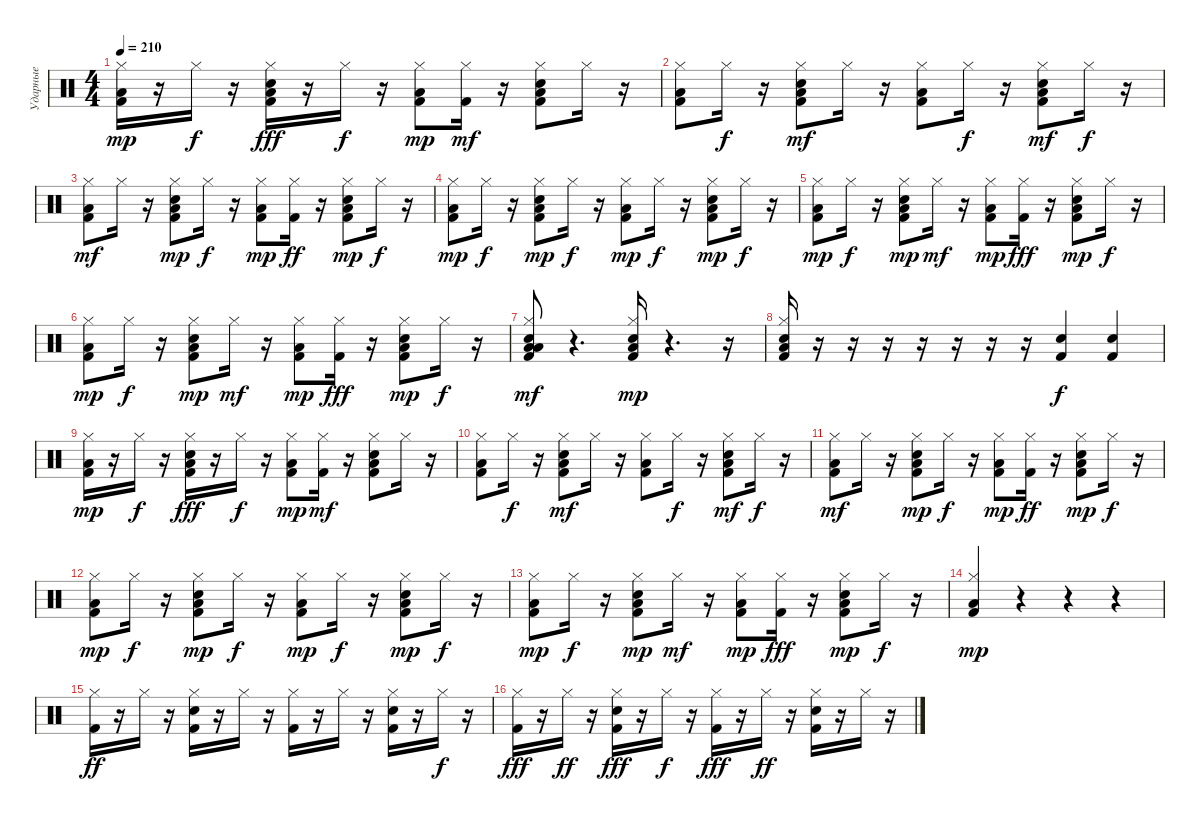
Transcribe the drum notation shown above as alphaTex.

\track ("Ударные" "Ударные") {instrument percussion}
\staff {score}
\articulation defaults
\ts (4 4)
\tempo 210
\clef neutral
\ks c
("Kick (hit) 2" "Hi-Hat (closed)" "Low Floor Tom (hit)").16{dy mp} r.16 "Hi-Hat (closed)".16{dy f} r.16 ("Kick (hit) 2" "Snare (hit) 2" "Hi-Hat (closed)" "Low Floor Tom (hit)").16{dy fff} r.16 "Hi-Hat (closed)".16{dy f} r.16 ("Kick (hit) 2" "Hi-Hat (closed)" "Low Floor Tom (hit)").8{dy mp} ("Kick (hit) 2" "Hi-Hat (closed)").16{dy mf} r.16 ("Kick (hit) 2" "Snare (hit) 2" "Hi-Hat (closed)" "Low Floor Tom (hit)").8 "Hi-Hat (closed)".16 r.16 |
("Kick (hit) 2" "Hi-Hat (closed)" "Low Floor Tom (hit)").8 "Hi-Hat (closed)".16{dy f} r.16 ("Kick (hit) 2" "Snare (hit) 2" "Hi-Hat (closed)" "Low Floor Tom (hit)").8{dy mf} "Hi-Hat (closed)".16 r.16 ("Kick (hit) 2" "Hi-Hat (closed)" "Low Floor Tom (hit)").8 "Hi-Hat (closed)".16{dy f} r.16 ("Kick (hit) 2" "Snare (hit) 2" "Hi-Hat (closed)" "Low Floor Tom (hit)").8{dy mf} "Hi-Hat (closed)".16{dy f} r.16 |
("Kick (hit) 2" "Hi-Hat (closed)" "Low Floor Tom (hit)").8{dy mf} "Hi-Hat (closed)".16 r.16 ("Kick (hit) 2" "Snare (hit) 2" "Hi-Hat (closed)" "Low Floor Tom (hit)").8{dy mp} "Hi-Hat (closed)".16{dy f} r.16 ("Kick (hit) 2" "Hi-Hat (closed)" "Low Floor Tom (hit)").8{dy mp} ("Kick (hit) 2" "Hi-Hat (closed)").16{dy ff} r.16 ("Kick (hit) 2" "Snare (hit) 2" "Hi-Hat (closed)" "Low Floor Tom (hit)").8{dy mp} "Hi-Hat (closed)".16{dy f} r.16 |
("Kick (hit) 2" "Hi-Hat (closed)" "Low Floor Tom (hit)").8{dy mp} "Hi-Hat (closed)".16{dy f} r.16 ("Kick (hit) 2" "Snare (hit) 2" "Hi-Hat (closed)" "Low Floor Tom (hit)").8{dy mp} "Hi-Hat (closed)".16{dy f} r.16 ("Kick (hit) 2" "Hi-Hat (closed)" "Low Floor Tom (hit)").8{dy mp} "Hi-Hat (closed)".16{dy f} r.16 ("Kick (hit) 2" "Snare (hit) 2" "Hi-Hat (closed)" "Low Floor Tom (hit)").8{dy mp} "Hi-Hat (closed)".16{dy f} r.16 |
("Kick (hit) 2" "Hi-Hat (closed)" "Low Floor Tom (hit)").8{dy mp} "Hi-Hat (closed)".16{dy f} r.16 ("Kick (hit) 2" "Snare (hit) 2" "Hi-Hat (closed)" "Low Floor Tom (hit)").8{dy mp} "Hi-Hat (closed)".16{dy mf} r.16 ("Kick (hit) 2" "Hi-Hat (closed)" "Low Floor Tom (hit)").8{dy mp} ("Kick (hit) 2" "Hi-Hat (closed)").16{dy fff} r.16 ("Kick (hit) 2" "Snare (hit) 2" "Hi-Hat (closed)" "Low Floor Tom (hit)").8{dy mp} "Hi-Hat (closed)".16{dy f} r.16 |
("Kick (hit) 2" "Hi-Hat (closed)" "Low Floor Tom (hit)").8{dy mp} "Hi-Hat (closed)".16{dy f} r.16 ("Kick (hit) 2" "Snare (hit) 2" "Hi-Hat (closed)" "Low Floor Tom (hit)").8{dy mp} "Hi-Hat (closed)".16{dy mf} r.16 ("Kick (hit) 2" "Hi-Hat (closed)" "Low Floor Tom (hit)").8{dy mp} ("Kick (hit) 2" "Hi-Hat (closed)").16{dy fff} r.16 ("Kick (hit) 2" "Snare (hit) 2" "Hi-Hat (closed)" "Low Floor Tom (hit)").8{dy mp} "Hi-Hat (closed)".16{dy f} r.16 |
("Kick (hit) 2" "Snare (hit) 2" "Hi-Hat (closed)" "Low Floor Tom (hit)" "Low Tom (hit)").8{dy mf} r.4{d} ("Kick (hit) 2" "Snare (hit) 2" "Hi-Hat (closed)" "Low Floor Tom (hit)").16{dy mp} r.4{d} r.16 |
("Kick (hit) 2" "Snare (hit) 2" "Hi-Hat (closed)" "Low Floor Tom (hit)").16 r.16 r.16 r.16 r.16 r.16 r.16 r.16 ("Snare (hit) 2" "Kick (hit) 2").4{dy f} ("Snare (hit) 2" "Kick (hit) 2").4 |
("Kick (hit) 2" "Hi-Hat (closed)" "Low Floor Tom (hit)").16{dy mp} r.16 "Hi-Hat (closed)".16{dy f} r.16 ("Kick (hit) 2" "Snare (hit) 2" "Hi-Hat (closed)" "Low Floor Tom (hit)").16{dy fff} r.16 "Hi-Hat (closed)".16{dy f} r.16 ("Kick (hit) 2" "Hi-Hat (closed)" "Low Floor Tom (hit)").8{dy mp} ("Kick (hit) 2" "Hi-Hat (closed)").16{dy mf} r.16 ("Kick (hit) 2" "Snare (hit) 2" "Hi-Hat (closed)" "Low Floor Tom (hit)").8 "Hi-Hat (closed)".16 r.16 |
("Kick (hit) 2" "Hi-Hat (closed)" "Low Floor Tom (hit)").8 "Hi-Hat (closed)".16{dy f} r.16 ("Kick (hit) 2" "Snare (hit) 2" "Hi-Hat (closed)" "Low Floor Tom (hit)").8{dy mf} "Hi-Hat (closed)".16 r.16 ("Kick (hit) 2" "Hi-Hat (closed)" "Low Floor Tom (hit)").8 "Hi-Hat (closed)".16{dy f} r.16 ("Kick (hit) 2" "Snare (hit) 2" "Hi-Hat (closed)" "Low Floor Tom (hit)").8{dy mf} "Hi-Hat (closed)".16{dy f} r.16 |
("Kick (hit) 2" "Hi-Hat (closed)" "Low Floor Tom (hit)").8{dy mf} "Hi-Hat (closed)".16 r.16 ("Kick (hit) 2" "Snare (hit) 2" "Hi-Hat (closed)" "Low Floor Tom (hit)").8{dy mp} "Hi-Hat (closed)".16{dy f} r.16 ("Kick (hit) 2" "Hi-Hat (closed)" "Low Floor Tom (hit)").8{dy mp} ("Kick (hit) 2" "Hi-Hat (closed)").16{dy ff} r.16 ("Kick (hit) 2" "Snare (hit) 2" "Hi-Hat (closed)" "Low Floor Tom (hit)").8{dy mp} "Hi-Hat (closed)".16{dy f} r.16 |
("Kick (hit) 2" "Hi-Hat (closed)" "Low Floor Tom (hit)").8{dy mp} "Hi-Hat (closed)".16{dy f} r.16 ("Kick (hit) 2" "Snare (hit) 2" "Hi-Hat (closed)" "Low Floor Tom (hit)").8{dy mp} "Hi-Hat (closed)".16{dy f} r.16 ("Kick (hit) 2" "Hi-Hat (closed)" "Low Floor Tom (hit)").8{dy mp} "Hi-Hat (closed)".16{dy f} r.16 ("Kick (hit) 2" "Snare (hit) 2" "Hi-Hat (closed)" "Low Floor Tom (hit)").8{dy mp} "Hi-Hat (closed)".16{dy f} r.16 |
("Kick (hit) 2" "Hi-Hat (closed)" "Low Floor Tom (hit)").8{dy mp} "Hi-Hat (closed)".16{dy f} r.16 ("Kick (hit) 2" "Snare (hit) 2" "Hi-Hat (closed)" "Low Floor Tom (hit)").8{dy mp} "Hi-Hat (closed)".16{dy mf} r.16 ("Kick (hit) 2" "Hi-Hat (closed)" "Low Floor Tom (hit)").8{dy mp} ("Kick (hit) 2" "Hi-Hat (closed)").16{dy fff} r.16 ("Kick (hit) 2" "Snare (hit) 2" "Hi-Hat (closed)" "Low Floor Tom (hit)").8{dy mp} "Hi-Hat (closed)".16{dy f} r.16 |
("Kick (hit) 2" "Hi-Hat (closed)" "Low Floor Tom (hit)").4{dy mp} r.4 r.4 r.4 |
("Kick (hit) 2" "Hi-Hat (closed)").16{dy ff} r.16 "Hi-Hat (closed)".16 r.16 ("Kick (hit) 2" "Snare (hit) 2" "Hi-Hat (closed)").16 r.16 "Hi-Hat (closed)".16 r.16 ("Kick (hit) 2" "Hi-Hat (closed)").16 r.16 "Hi-Hat (closed)".16 r.16 ("Kick (hit) 2" "Snare (hit) 2" "Hi-Hat (closed)").16 r.16 "Hi-Hat (closed)".16{dy f} r.16 |
("Kick (hit) 2" "Hi-Hat (closed)").16{dy fff} r.16 "Hi-Hat (closed)".16{dy ff} r.16 ("Kick (hit) 2" "Snare (hit) 2" "Hi-Hat (closed)").16{dy fff} r.16 "Hi-Hat (closed)".16{dy f} r.16 ("Kick (hit) 2" "Hi-Hat (closed)").16{dy fff} r.16 "Hi-Hat (closed)".16{dy ff} r.16 ("Kick (hit) 2" "Snare (hit) 2" "Hi-Hat (closed)").16 r.16 "Hi-Hat (closed)".16 r.16
